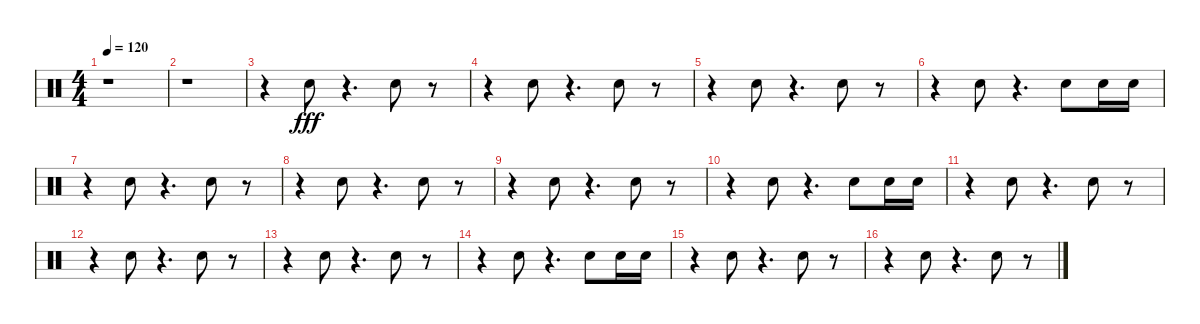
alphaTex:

\track "" {instrument percussion}
\staff {score}
\articulation defaults
\ts (4 4)
\tempo 120
\clef neutral
\ks c
r.1{dy fff} |
r.1 |
r.4 "Hand Clap (hit)".8 r.4{d} "Hand Clap (hit)".8 r.8 |
r.4 "Hand Clap (hit)".8 r.4{d} "Hand Clap (hit)".8 r.8 |
r.4 "Hand Clap (hit)".8 r.4{d} "Hand Clap (hit)".8 r.8 |
r.4 "Hand Clap (hit)".8 r.4{d} "Hand Clap (hit)".8 "Hand Clap (hit)".16 "Hand Clap (hit)".16 |
r.4 "Hand Clap (hit)".8 r.4{d} "Hand Clap (hit)".8 r.8 |
r.4 "Hand Clap (hit)".8 r.4{d} "Hand Clap (hit)".8 r.8 |
r.4 "Hand Clap (hit)".8 r.4{d} "Hand Clap (hit)".8 r.8 |
r.4 "Hand Clap (hit)".8 r.4{d} "Hand Clap (hit)".8 "Hand Clap (hit)".16 "Hand Clap (hit)".16 |
r.4 "Hand Clap (hit)".8 r.4{d} "Hand Clap (hit)".8 r.8 |
r.4 "Hand Clap (hit)".8 r.4{d} "Hand Clap (hit)".8 r.8 |
r.4 "Hand Clap (hit)".8 r.4{d} "Hand Clap (hit)".8 r.8 |
r.4 "Hand Clap (hit)".8 r.4{d} "Hand Clap (hit)".8 "Hand Clap (hit)".16 "Hand Clap (hit)".16 |
r.4 "Hand Clap (hit)".8 r.4{d} "Hand Clap (hit)".8 r.8 |
r.4 "Hand Clap (hit)".8 r.4{d} "Hand Clap (hit)".8 r.8
